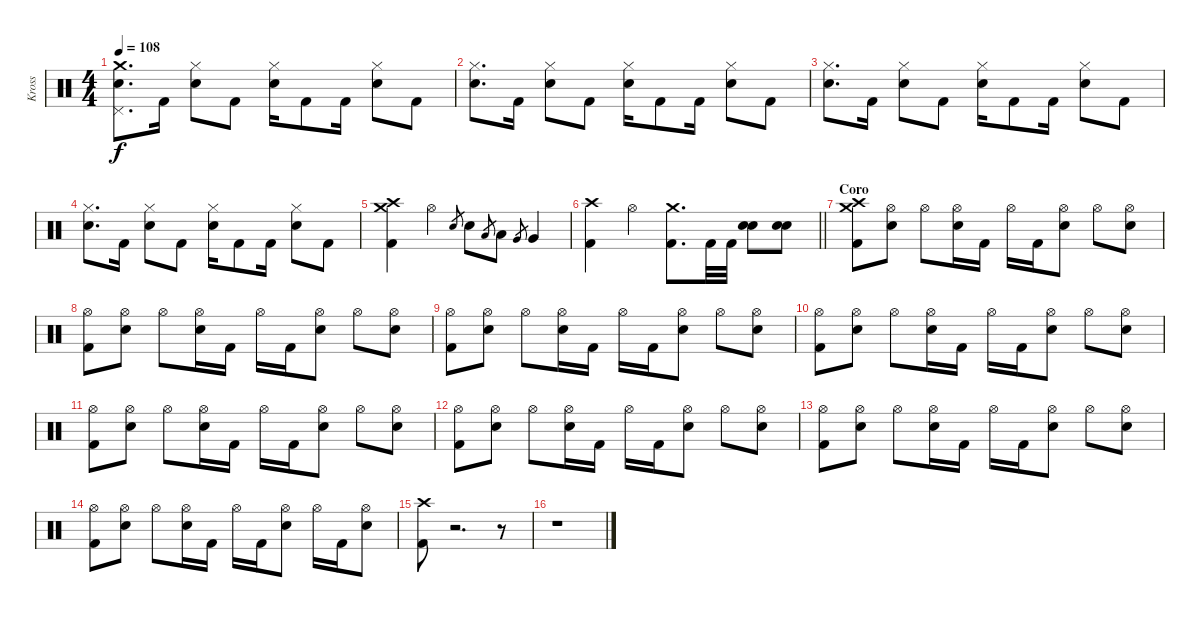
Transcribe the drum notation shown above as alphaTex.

\track ("Kross" "Kross") {instrument percussion}
\staff {score}
\articulation defaults
\ts (4 4)
\tempo 108
\clef neutral
\ks c
("Crash medium (hit)" "Pedal Hi-Hat (hit)" "Electric Snare (hit)").8{d dy f} "Kick (hit) 2".16 ("Hi-Hat (closed)" "Electric Snare (hit)").8 "Kick (hit) 2".8 ("Hi-Hat (closed)" "Electric Snare (hit)").16 "Kick (hit) 2".8 "Kick (hit) 2".16 ("Hi-Hat (closed)" "Electric Snare (hit)").8 "Kick (hit) 2".8 |
("Hi-Hat (closed)" "Electric Snare (hit)").8{d} "Kick (hit) 2".16 ("Hi-Hat (closed)" "Electric Snare (hit)").8 "Kick (hit) 2".8 ("Hi-Hat (closed)" "Electric Snare (hit)").16 "Kick (hit) 2".8 "Kick (hit) 2".16 ("Hi-Hat (closed)" "Electric Snare (hit)").8 "Kick (hit) 2".8 |
("Hi-Hat (closed)" "Electric Snare (hit)").8{d} "Kick (hit) 2".16 ("Hi-Hat (closed)" "Electric Snare (hit)").8 "Kick (hit) 2".8 ("Hi-Hat (closed)" "Electric Snare (hit)").16 "Kick (hit) 2".8 "Kick (hit) 2".16 ("Hi-Hat (closed)" "Electric Snare (hit)").8 "Kick (hit) 2".8 |
("Hi-Hat (closed)" "Electric Snare (hit)").8{d} "Kick (hit) 2".16 ("Hi-Hat (closed)" "Electric Snare (hit)").8 "Kick (hit) 2".8 ("Hi-Hat (closed)" "Electric Snare (hit)").16 "Kick (hit) 2".8 "Kick (hit) 2".16 ("Hi-Hat (closed)" "Electric Snare (hit)").8 "Kick (hit) 2".8 |
("Crash medium (hit)" "Crash high (hit)" "Kick (hit) 2").4 "Hi-Hat (open)".4 "Electric Snare (hit)".8{gr} "Electric Snare (hit)".8 "Low Tom (hit)".8{gr} "Low Tom (hit)".8 "Very Low Tom (hit)".8{gr} "Very Low Tom (hit)".4 |
\barLineRight lightlight
("Crash high (hit)" "Kick (hit) 2").4 "Hi-Hat (open)".4 ("Crash medium (hit)" "Kick (hit) 2").8{d} "Kick (hit) 2".32 "Kick (hit) 2".32 ("Electric Snare (hit)" "Electric Snare (hit)").8 ("Electric Snare (hit)" "Electric Snare (hit)").8 |
\section ("" "Coro")
("Crash medium (hit)" "Crash high (hit)" "Kick (hit) 2").8 ("Hi-Hat (open)" "Electric Snare (hit)").8 "Hi-Hat (open)".8 ("Hi-Hat (open)" "Electric Snare (hit)").16 "Kick (hit) 2".16 "Hi-Hat (open)".16 "Kick (hit) 2".16 ("Hi-Hat (open)" "Electric Snare (hit)").8 "Hi-Hat (open)".8 ("Hi-Hat (open)" "Electric Snare (hit)").8 |
("Hi-Hat (open)" "Kick (hit) 2").8 ("Hi-Hat (open)" "Electric Snare (hit)").8 "Hi-Hat (open)".8 ("Hi-Hat (open)" "Electric Snare (hit)").16 "Kick (hit) 2".16 "Hi-Hat (open)".16 "Kick (hit) 2".16 ("Hi-Hat (open)" "Electric Snare (hit)").8 "Hi-Hat (open)".8 ("Hi-Hat (open)" "Electric Snare (hit)").8 |
("Hi-Hat (open)" "Kick (hit) 2").8 ("Hi-Hat (open)" "Electric Snare (hit)").8 "Hi-Hat (open)".8 ("Hi-Hat (open)" "Electric Snare (hit)").16 "Kick (hit) 2".16 "Hi-Hat (open)".16 "Kick (hit) 2".16 ("Hi-Hat (open)" "Electric Snare (hit)").8 "Hi-Hat (open)".8 ("Hi-Hat (open)" "Electric Snare (hit)").8 |
("Hi-Hat (open)" "Kick (hit) 2").8 ("Hi-Hat (open)" "Electric Snare (hit)").8 "Hi-Hat (open)".8 ("Hi-Hat (open)" "Electric Snare (hit)").16 "Kick (hit) 2".16 "Hi-Hat (open)".16 "Kick (hit) 2".16 ("Hi-Hat (open)" "Electric Snare (hit)").8 "Hi-Hat (open)".8 ("Hi-Hat (open)" "Electric Snare (hit)").8 |
("Hi-Hat (open)" "Kick (hit) 2").8 ("Hi-Hat (open)" "Electric Snare (hit)").8 "Hi-Hat (open)".8 ("Hi-Hat (open)" "Electric Snare (hit)").16 "Kick (hit) 2".16 "Hi-Hat (open)".16 "Kick (hit) 2".16 ("Hi-Hat (open)" "Electric Snare (hit)").8 "Hi-Hat (open)".8 ("Hi-Hat (open)" "Electric Snare (hit)").8 |
("Hi-Hat (open)" "Kick (hit) 2").8 ("Hi-Hat (open)" "Electric Snare (hit)").8 "Hi-Hat (open)".8 ("Hi-Hat (open)" "Electric Snare (hit)").16 "Kick (hit) 2".16 "Hi-Hat (open)".16 "Kick (hit) 2".16 ("Hi-Hat (open)" "Electric Snare (hit)").8 "Hi-Hat (open)".8 ("Hi-Hat (open)" "Electric Snare (hit)").8 |
("Hi-Hat (open)" "Kick (hit) 2").8 ("Hi-Hat (open)" "Electric Snare (hit)").8 "Hi-Hat (open)".8 ("Hi-Hat (open)" "Electric Snare (hit)").16 "Kick (hit) 2".16 "Hi-Hat (open)".16 "Kick (hit) 2".16 ("Hi-Hat (open)" "Electric Snare (hit)").8 "Hi-Hat (open)".8 ("Hi-Hat (open)" "Electric Snare (hit)").8 |
("Hi-Hat (open)" "Kick (hit) 2").8 ("Hi-Hat (open)" "Electric Snare (hit)").8 "Hi-Hat (open)".8 ("Hi-Hat (open)" "Electric Snare (hit)").16 "Kick (hit) 2".16 "Hi-Hat (open)".16 "Kick (hit) 2".16 ("Hi-Hat (open)" "Electric Snare (hit)").8 "Hi-Hat (open)".16 "Kick (hit) 2".16 ("Hi-Hat (open)" "Electric Snare (hit)").8 |
("Crash high (hit)" "Kick (hit) 2").8 r.2{d volume 0} r.8 |
r.1
